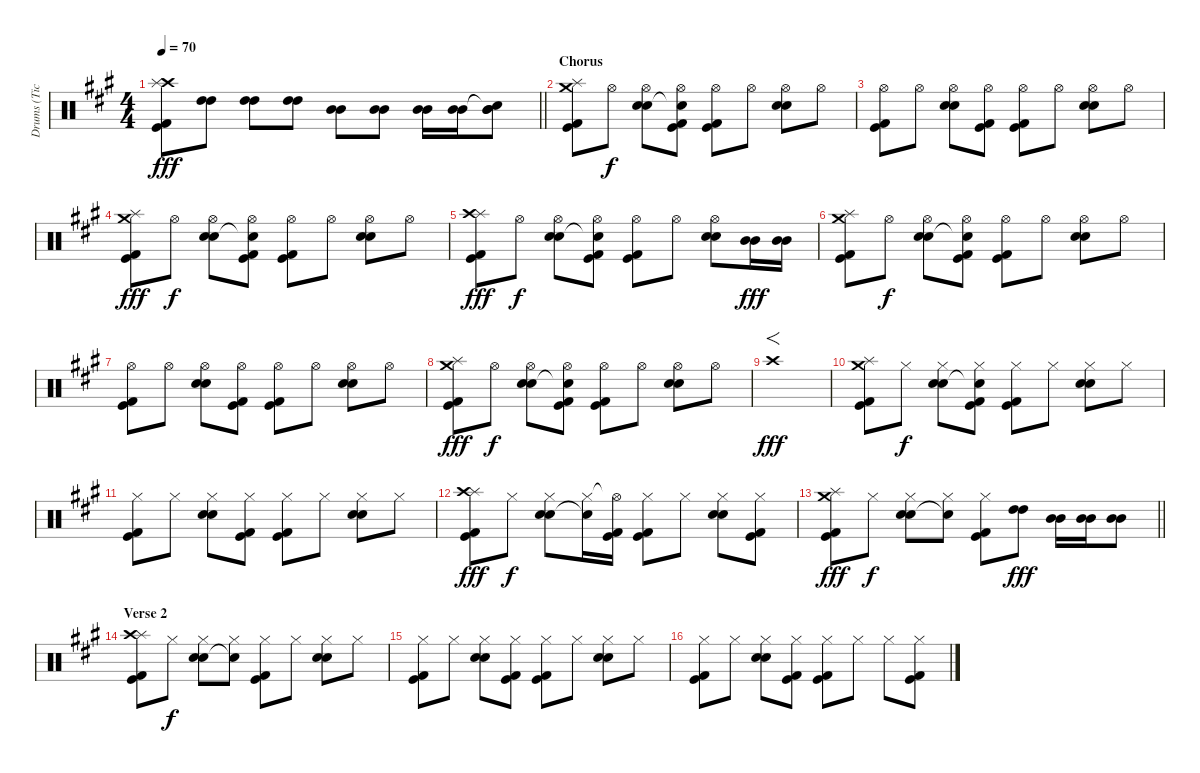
\track ("Drums (Tico Torres)" "Drums (Tic") {instrument percussion}
\staff {score}
\articulation defaults
\ts (4 4)
\tempo 70
\clef neutral
\barLineRight lightlight
\ks a
("Crash high (hit)" "Splash (hit)" "Kick (hit)" "Kick (hit) 2").8{dy fff} ("High Tom (hit)" "High Tom (hit)").8 ("High Tom (hit)" "High Tom (hit)").8 ("High Tom (hit)" "High Tom (hit)").8 ("Mid Tom (hit)" "Mid Tom (hit)").8 ("Mid Tom (hit)" "Mid Tom (hit)").8 ("Mid Tom (hit)" "Mid Tom (hit)").16 ("Mid Tom (hit)" "Mid Tom (hit)").16 ("Snare (hit)"{t} "Mid Tom (hit)" "Mid Tom (hit)").8 |
\section ("" "Chorus")
("Splash (hit)" "Crash medium (hit)" "Kick (hit)" "Kick (hit) 2").8 "Hi-Hat (open)".8{dy f} ("Hi-Hat (open)" "Electric Snare (hit)" "Snare (hit) 2").8 ("Hi-Hat (open)" "Snare (hit)"{t} "Kick (hit)" "Kick (hit) 2").8 ("Hi-Hat (open)" "Kick (hit)" "Kick (hit) 2").8 "Hi-Hat (open)".8 ("Hi-Hat (open)" "Electric Snare (hit)" "Snare (hit) 2").8 "Hi-Hat (open)".8 |
("Hi-Hat (open)" "Kick (hit)" "Kick (hit) 2").8 "Hi-Hat (open)".8 ("Hi-Hat (open)" "Electric Snare (hit)" "Snare (hit) 2").8 ("Hi-Hat (open)" "Kick (hit)" "Kick (hit) 2").8 ("Hi-Hat (open)" "Kick (hit)" "Kick (hit) 2").8 "Hi-Hat (open)".8 ("Hi-Hat (open)" "Electric Snare (hit)" "Snare (hit) 2").8 "Hi-Hat (open)".8 |
("Splash (hit)" "Crash medium (hit)" "Kick (hit)" "Kick (hit) 2").8{dy fff} "Hi-Hat (open)".8{dy f} ("Hi-Hat (open)" "Electric Snare (hit)" "Snare (hit) 2").8 ("Hi-Hat (open)" "Snare (hit)"{t} "Kick (hit)" "Kick (hit) 2").8 ("Hi-Hat (open)" "Kick (hit)" "Kick (hit) 2").8 "Hi-Hat (open)".8 ("Hi-Hat (open)" "Electric Snare (hit)" "Snare (hit) 2").8 "Hi-Hat (open)".8 |
("Splash (hit)" "Crash high (hit)" "Kick (hit)" "Kick (hit) 2").8{dy fff} "Hi-Hat (open)".8{dy f} ("Hi-Hat (open)" "Electric Snare (hit)" "Snare (hit) 2").8 ("Hi-Hat (open)" "Snare (hit)"{t} "Kick (hit)" "Kick (hit) 2").8 ("Hi-Hat (open)" "Kick (hit)" "Kick (hit) 2").8 "Hi-Hat (open)".8 ("Hi-Hat (open)" "Electric Snare (hit)" "Snare (hit) 2").8 ("Mid Tom (hit)" "Mid Tom (hit)").16{dy fff} ("Mid Tom (hit)" "Mid Tom (hit)").16 |
("Splash (hit)" "Crash medium (hit)" "Kick (hit)" "Kick (hit) 2").8 "Hi-Hat (open)".8{dy f} ("Hi-Hat (open)" "Electric Snare (hit)" "Snare (hit) 2").8 ("Hi-Hat (open)" "Snare (hit)"{t} "Kick (hit)" "Kick (hit) 2").8 ("Hi-Hat (open)" "Kick (hit)" "Kick (hit) 2").8 "Hi-Hat (open)".8 ("Hi-Hat (open)" "Electric Snare (hit)" "Snare (hit) 2").8 "Hi-Hat (open)".8 |
("Hi-Hat (open)" "Kick (hit)" "Kick (hit) 2").8 "Hi-Hat (open)".8 ("Hi-Hat (open)" "Electric Snare (hit)" "Snare (hit) 2").8 ("Hi-Hat (open)" "Kick (hit)" "Kick (hit) 2").8 ("Hi-Hat (open)" "Kick (hit)" "Kick (hit) 2").8 "Hi-Hat (open)".8 ("Hi-Hat (open)" "Electric Snare (hit)" "Snare (hit) 2").8 "Hi-Hat (open)".8 |
("Splash (hit)" "Crash medium (hit)" "Kick (hit)" "Kick (hit) 2").8{dy fff} "Hi-Hat (open)".8{dy f} ("Hi-Hat (open)" "Electric Snare (hit)" "Snare (hit) 2").8 ("Hi-Hat (open)" "Snare (hit)"{t} "Kick (hit)" "Kick (hit) 2").8 ("Hi-Hat (open)" "Kick (hit)" "Kick (hit) 2").8 "Hi-Hat (open)".8 ("Hi-Hat (open)" "Electric Snare (hit)" "Snare (hit) 2").8 "Hi-Hat (open)".8 |
"Crash high (hit)"{tr (49 64)}.1{f dy fff} |
("Splash (hit)" "Crash medium (hit)" "Kick (hit)" "Kick (hit) 2").8 "Hi-Hat (closed)".8{dy f} ("Hi-Hat (closed)" "Electric Snare (hit)" "Snare (hit) 2").8 ("Hi-Hat (closed)" "Snare (hit)"{t} "Kick (hit)" "Kick (hit) 2").8 ("Hi-Hat (closed)" "Kick (hit)" "Kick (hit) 2").8 "Hi-Hat (closed)".8 ("Hi-Hat (closed)" "Electric Snare (hit)" "Snare (hit) 2").8 "Hi-Hat (closed)".8 |
("Hi-Hat (closed)" "Kick (hit)" "Kick (hit) 2").8 "Hi-Hat (closed)".8 ("Hi-Hat (closed)" "Electric Snare (hit)" "Snare (hit) 2").8 ("Hi-Hat (closed)" "Kick (hit)" "Kick (hit) 2").8 ("Hi-Hat (closed)" "Kick (hit)" "Kick (hit) 2").8 "Hi-Hat (closed)".8 ("Hi-Hat (closed)" "Electric Snare (hit)" "Snare (hit) 2").8 "Hi-Hat (closed)".8 |
("Splash (hit)" "Crash high (hit)" "Kick (hit)" "Kick (hit) 2").8{dy fff} "Hi-Hat (closed)".8{dy f} ("Hi-Hat (closed)" "Electric Snare (hit)" "Snare (hit) 2").8 ("Hi-Hat (closed)" "Snare (hit)"{t}).16 ("Hi-Hat (open)"{t} "Kick (hit)" "Kick (hit) 2").16 ("Hi-Hat (closed)" "Kick (hit)" "Kick (hit) 2").8 "Hi-Hat (closed)".8 ("Hi-Hat (closed)" "Electric Snare (hit)" "Snare (hit) 2").8 ("Hi-Hat (closed)" "Kick (hit)" "Kick (hit) 2").8 |
\barLineRight lightlight
("Splash (hit)" "Crash medium (hit)" "Kick (hit)" "Kick (hit) 2").8{dy fff} "Hi-Hat (closed)".8{dy f} ("Hi-Hat (closed)" "Electric Snare (hit)" "Snare (hit) 2").8 ("Hi-Hat (closed)" "Snare (hit)"{t}).8 ("Hi-Hat (closed)" "Kick (hit)" "Kick (hit) 2").8 ("High Tom (hit)" "High Tom (hit)").8{dy fff} ("Mid Tom (hit)" "Mid Tom (hit)").16 ("Mid Tom (hit)" "Mid Tom (hit)").16 ("Mid Tom (hit)" "Mid Tom (hit)").8 |
\section ("" "Verse 2")
("Splash (hit)" "Crash high (hit)" "Kick (hit)" "Kick (hit) 2").8 "Hi-Hat (closed)".8{dy f} ("Hi-Hat (closed)" "Electric Snare (hit)" "Snare (hit) 2").8 ("Hi-Hat (closed)" "Snare (hit)"{t}).8 ("Hi-Hat (closed)" "Kick (hit)" "Kick (hit) 2").8 "Hi-Hat (closed)".8 ("Hi-Hat (closed)" "Electric Snare (hit)" "Snare (hit) 2").8 "Hi-Hat (closed)".8 |
("Hi-Hat (closed)" "Kick (hit)" "Kick (hit) 2").8 "Hi-Hat (closed)".8 ("Hi-Hat (closed)" "Electric Snare (hit)" "Snare (hit) 2").8 ("Hi-Hat (closed)" "Kick (hit)" "Kick (hit) 2").8 ("Hi-Hat (closed)" "Kick (hit)" "Kick (hit) 2").8 "Hi-Hat (closed)".8 ("Hi-Hat (closed)" "Electric Snare (hit)" "Snare (hit) 2").8 "Hi-Hat (closed)".8 |
("Hi-Hat (closed)" "Kick (hit)" "Kick (hit) 2").8 "Hi-Hat (closed)".8 ("Hi-Hat (closed)" "Electric Snare (hit)" "Snare (hit) 2").8 ("Hi-Hat (closed)" "Kick (hit)" "Kick (hit) 2").8 ("Hi-Hat (closed)" "Kick (hit)" "Kick (hit) 2").8 "Hi-Hat (closed)".8 "Hi-Hat (closed)".8 ("Hi-Hat (closed)" "Kick (hit)" "Kick (hit) 2").8
